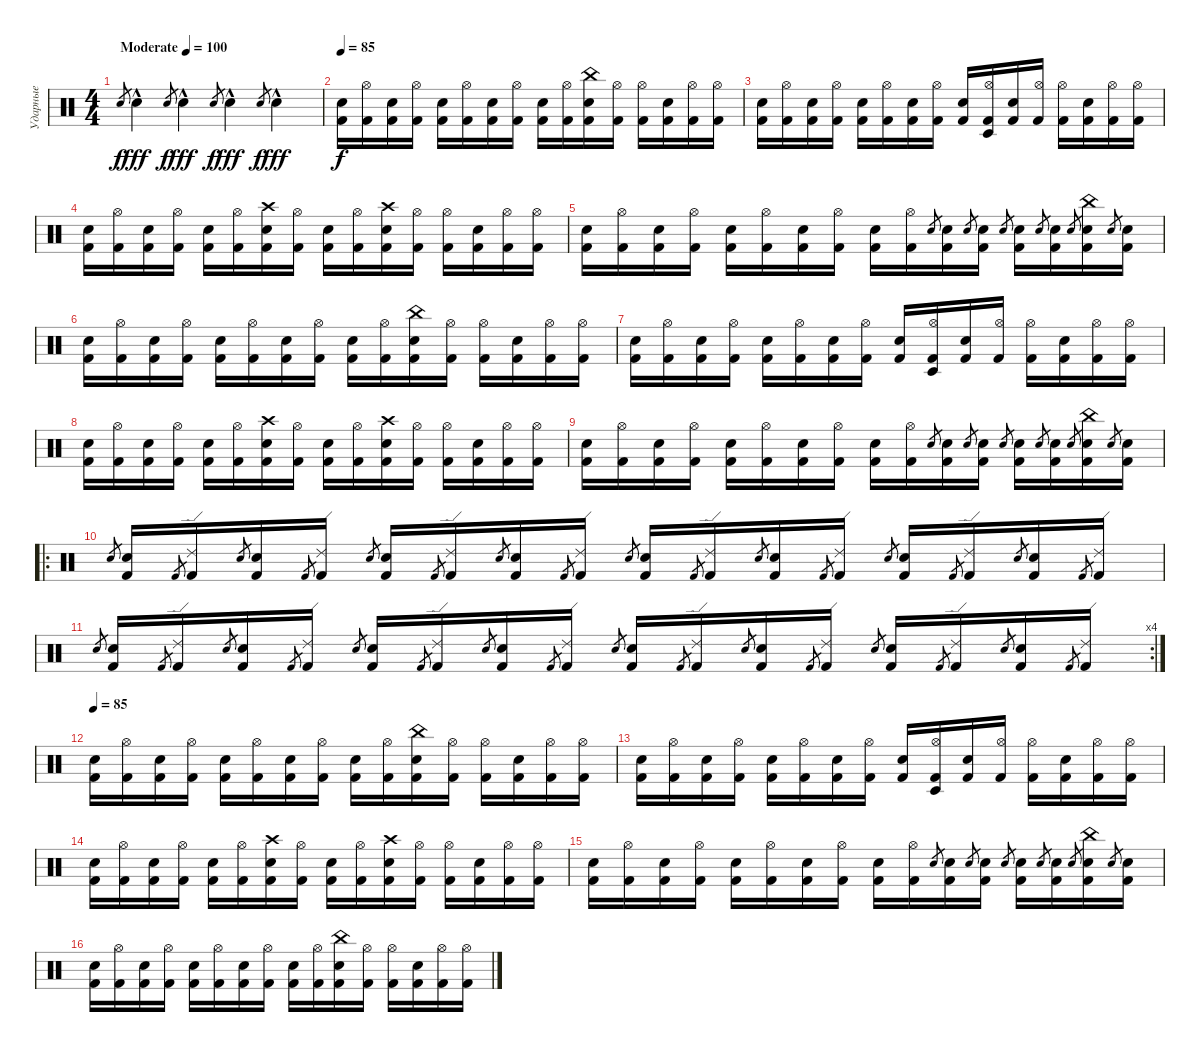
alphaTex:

\track ("Ударные" "Ударные") {instrument percussion}
\staff {score}
\articulation defaults
\ts (4 4)
\tempo (100 "Moderate")
\clef neutral
\ks c "Electric Snare (hit)".8{gr dy f} "Electric Snare (hit)"{hac}.4{dy fff} "Electric Snare (hit)".8{gr dy f} "Electric Snare (hit)"{hac}.4{dy fff} "Electric Snare (hit)".8{gr dy f} "Electric Snare (hit)"{hac}.4{dy fff} "Electric Snare (hit)".8{gr dy f} "Electric Snare (hit)"{hac}.4{dy fff}
|
\tempo 85
("Electric Snare (hit)" "Kick (hit) 2").16{dy f} ("Hi-Hat (open)" "Kick (hit) 2").16 ("Electric Snare (hit)" "Kick (hit) 2").16 ("Hi-Hat (open)" "Kick (hit) 2").16 ("Electric Snare (hit)" "Kick (hit) 2").16 ("Hi-Hat (open)" "Kick (hit) 2").16 ("Electric Snare (hit)" "Kick (hit) 2").16 ("Hi-Hat (open)" "Kick (hit) 2").16 ("Electric Snare (hit)" "Kick (hit) 2").16 ("Hi-Hat (open)" "Kick (hit) 2").16 ("China (hit)" "Electric Snare (hit)" "Kick (hit) 2").16 ("Hi-Hat (open)" "Kick (hit) 2").16 ("Hi-Hat (open)" "Kick (hit) 2").16 ("Electric Snare (hit)" "Kick (hit) 2").16 ("Hi-Hat (open)" "Kick (hit) 2").16 ("Hi-Hat (open)" "Kick (hit) 2").16 |
("Electric Snare (hit)" "Kick (hit) 2").16 ("Hi-Hat (open)" "Kick (hit) 2").16 ("Electric Snare (hit)" "Kick (hit) 2").16 ("Hi-Hat (open)" "Kick (hit) 2").16 ("Electric Snare (hit)" "Kick (hit) 2").16 ("Hi-Hat (open)" "Kick (hit) 2").16 ("Electric Snare (hit)" "Kick (hit) 2").16 ("Hi-Hat (open)" "Kick (hit) 2").16 ("Electric Snare (hit)" "Kick (hit) 2").16 ("Hi-Hat (open)" "Timbale low (hit)" "Kick (hit) 2").16 ("Electric Snare (hit)" "Kick (hit) 2").16 ("Hi-Hat (open)" "Kick (hit) 2").16 ("Hi-Hat (open)" "Kick (hit) 2").16 ("Electric Snare (hit)" "Kick (hit) 2").16 ("Hi-Hat (open)" "Kick (hit) 2").16 ("Hi-Hat (open)" "Kick (hit) 2").16 |
("Electric Snare (hit)" "Kick (hit) 2").16 ("Hi-Hat (open)" "Kick (hit) 2").16 ("Electric Snare (hit)" "Kick (hit) 2").16 ("Hi-Hat (open)" "Kick (hit) 2").16 ("Electric Snare (hit)" "Kick (hit) 2").16 ("Hi-Hat (open)" "Kick (hit) 2").16 ("Crash high (hit)" "Electric Snare (hit)" "Kick (hit) 2").16 ("Hi-Hat (open)" "Kick (hit) 2").16 ("Electric Snare (hit)" "Kick (hit) 2").16 ("Hi-Hat (open)" "Kick (hit) 2").16 ("Crash high (hit)" "Electric Snare (hit)" "Kick (hit) 2").16 ("Hi-Hat (open)" "Kick (hit) 2").16 ("Hi-Hat (open)" "Kick (hit) 2").16 ("Electric Snare (hit)" "Kick (hit) 2").16 ("Hi-Hat (open)" "Kick (hit) 2").16 ("Hi-Hat (open)" "Kick (hit) 2").16 |
("Electric Snare (hit)" "Kick (hit) 2").16 ("Hi-Hat (open)" "Kick (hit) 2").16 ("Electric Snare (hit)" "Kick (hit) 2").16 ("Hi-Hat (open)" "Kick (hit) 2").16 ("Electric Snare (hit)" "Kick (hit) 2").16 ("Hi-Hat (open)" "Kick (hit) 2").16 ("Electric Snare (hit)" "Kick (hit) 2").16 ("Hi-Hat (open)" "Kick (hit) 2").16 ("Electric Snare (hit)" "Kick (hit) 2").16 ("Hi-Hat (open)" "Kick (hit) 2").16 "Electric Snare (hit)".8{gr} ("Electric Snare (hit)" "Kick (hit) 2").16 "Electric Snare (hit)".8{gr} ("Electric Snare (hit)" "Kick (hit) 2").16 "Electric Snare (hit)".8{gr} ("Electric Snare (hit)" "Kick (hit) 2").16 "Electric Snare (hit)".8{gr} ("Electric Snare (hit)" "Kick (hit) 2").16 "Electric Snare (hit)".8{gr} ("China (hit)" "Electric Snare (hit)" "Kick (hit) 2").16 "Electric Snare (hit)".8{gr} ("Electric Snare (hit)" "Kick (hit) 2").16 |
("Electric Snare (hit)" "Kick (hit) 2").16 ("Hi-Hat (open)" "Kick (hit) 2").16 ("Electric Snare (hit)" "Kick (hit) 2").16 ("Hi-Hat (open)" "Kick (hit) 2").16 ("Electric Snare (hit)" "Kick (hit) 2").16 ("Hi-Hat (open)" "Kick (hit) 2").16 ("Electric Snare (hit)" "Kick (hit) 2").16 ("Hi-Hat (open)" "Kick (hit) 2").16 ("Electric Snare (hit)" "Kick (hit) 2").16 ("Hi-Hat (open)" "Kick (hit) 2").16 ("China (hit)" "Electric Snare (hit)" "Kick (hit) 2").16 ("Hi-Hat (open)" "Kick (hit) 2").16 ("Hi-Hat (open)" "Kick (hit) 2").16 ("Electric Snare (hit)" "Kick (hit) 2").16 ("Hi-Hat (open)" "Kick (hit) 2").16 ("Hi-Hat (open)" "Kick (hit) 2").16 |
("Electric Snare (hit)" "Kick (hit) 2").16 ("Hi-Hat (open)" "Kick (hit) 2").16 ("Electric Snare (hit)" "Kick (hit) 2").16 ("Hi-Hat (open)" "Kick (hit) 2").16 ("Electric Snare (hit)" "Kick (hit) 2").16 ("Hi-Hat (open)" "Kick (hit) 2").16 ("Electric Snare (hit)" "Kick (hit) 2").16 ("Hi-Hat (open)" "Kick (hit) 2").16 ("Electric Snare (hit)" "Kick (hit) 2").16 ("Hi-Hat (open)" "Timbale low (hit)" "Kick (hit) 2").16 ("Electric Snare (hit)" "Kick (hit) 2").16 ("Hi-Hat (open)" "Kick (hit) 2").16 ("Hi-Hat (open)" "Kick (hit) 2").16 ("Electric Snare (hit)" "Kick (hit) 2").16 ("Hi-Hat (open)" "Kick (hit) 2").16 ("Hi-Hat (open)" "Kick (hit) 2").16 |
("Electric Snare (hit)" "Kick (hit) 2").16 ("Hi-Hat (open)" "Kick (hit) 2").16 ("Electric Snare (hit)" "Kick (hit) 2").16 ("Hi-Hat (open)" "Kick (hit) 2").16 ("Electric Snare (hit)" "Kick (hit) 2").16 ("Hi-Hat (open)" "Kick (hit) 2").16 ("Crash high (hit)" "Electric Snare (hit)" "Kick (hit) 2").16 ("Hi-Hat (open)" "Kick (hit) 2").16 ("Electric Snare (hit)" "Kick (hit) 2").16 ("Hi-Hat (open)" "Kick (hit) 2").16 ("Crash high (hit)" "Electric Snare (hit)" "Kick (hit) 2").16 ("Hi-Hat (open)" "Kick (hit) 2").16 ("Hi-Hat (open)" "Kick (hit) 2").16 ("Electric Snare (hit)" "Kick (hit) 2").16 ("Hi-Hat (open)" "Kick (hit) 2").16 ("Hi-Hat (open)" "Kick (hit) 2").16 |
("Electric Snare (hit)" "Kick (hit) 2").16 ("Hi-Hat (open)" "Kick (hit) 2").16 ("Electric Snare (hit)" "Kick (hit) 2").16 ("Hi-Hat (open)" "Kick (hit) 2").16 ("Electric Snare (hit)" "Kick (hit) 2").16 ("Hi-Hat (open)" "Kick (hit) 2").16 ("Electric Snare (hit)" "Kick (hit) 2").16 ("Hi-Hat (open)" "Kick (hit) 2").16 ("Electric Snare (hit)" "Kick (hit) 2").16 ("Hi-Hat (open)" "Kick (hit) 2").16 "Electric Snare (hit)".8{gr} ("Electric Snare (hit)" "Kick (hit) 2").16 "Electric Snare (hit)".8{gr} ("Electric Snare (hit)" "Kick (hit) 2").16 "Electric Snare (hit)".8{gr} ("Electric Snare (hit)" "Kick (hit) 2").16 "Electric Snare (hit)".8{gr} ("Electric Snare (hit)" "Kick (hit) 2").16 "Electric Snare (hit)".8{gr} ("China (hit)" "Electric Snare (hit)" "Kick (hit) 2").16 "Electric Snare (hit)".8{gr} ("Electric Snare (hit)" "Kick (hit) 2").16 |
\ro "Electric Snare (hit)".8{gr}
("Electric Snare (hit)" "Kick (hit) 2").16 "Kick (hit) 2".8{gr} ("Ride (edge) 2" "Kick (hit) 2").16 "Electric Snare (hit)".8{gr} ("Electric Snare (hit)" "Kick (hit) 2").16 "Kick (hit) 2".8{gr} ("Ride (edge) 2" "Kick (hit) 2").16 "Electric Snare (hit)".8{gr} ("Electric Snare (hit)" "Kick (hit) 2").16 "Kick (hit) 2".8{gr} ("Ride (edge) 2" "Kick (hit) 2").16 "Electric Snare (hit)".8{gr} ("Electric Snare (hit)" "Kick (hit) 2").16 "Kick (hit) 2".8{gr} ("Ride (edge) 2" "Kick (hit) 2").16 "Electric Snare (hit)".8{gr} ("Electric Snare (hit)" "Kick (hit) 2").16 "Kick (hit) 2".8{gr} ("Ride (edge) 2" "Kick (hit) 2").16 "Electric Snare (hit)".8{gr} ("Electric Snare (hit)" "Kick (hit) 2").16 "Kick (hit) 2".8{gr} ("Ride (edge) 2" "Kick (hit) 2").16 "Electric Snare (hit)".8{gr} ("Electric Snare (hit)" "Kick (hit) 2").16 "Kick (hit) 2".8{gr} ("Ride (edge) 2" "Kick (hit) 2").16 "Electric Snare (hit)".8{gr} ("Electric Snare (hit)" "Kick (hit) 2").16 "Kick (hit) 2".8{gr} ("Ride (edge) 2" "Kick (hit) 2").16 |
\rc 4 "Electric Snare (hit)".8{gr}
("Electric Snare (hit)" "Kick (hit) 2").16 "Kick (hit) 2".8{gr} ("Ride (edge) 2" "Kick (hit) 2").16 "Electric Snare (hit)".8{gr} ("Electric Snare (hit)" "Kick (hit) 2").16 "Kick (hit) 2".8{gr} ("Ride (edge) 2" "Kick (hit) 2").16 "Electric Snare (hit)".8{gr} ("Electric Snare (hit)" "Kick (hit) 2").16 "Kick (hit) 2".8{gr} ("Ride (edge) 2" "Kick (hit) 2").16 "Electric Snare (hit)".8{gr} ("Electric Snare (hit)" "Kick (hit) 2").16 "Kick (hit) 2".8{gr} ("Ride (edge) 2" "Kick (hit) 2").16 "Electric Snare (hit)".8{gr} ("Electric Snare (hit)" "Kick (hit) 2").16 "Kick (hit) 2".8{gr} ("Ride (edge) 2" "Kick (hit) 2").16 "Electric Snare (hit)".8{gr} ("Electric Snare (hit)" "Kick (hit) 2").16 "Kick (hit) 2".8{gr} ("Ride (edge) 2" "Kick (hit) 2").16 "Electric Snare (hit)".8{gr} ("Electric Snare (hit)" "Kick (hit) 2").16 "Kick (hit) 2".8{gr} ("Ride (edge) 2" "Kick (hit) 2").16 "Electric Snare (hit)".8{gr} ("Electric Snare (hit)" "Kick (hit) 2").16 "Kick (hit) 2".8{gr} ("Ride (edge) 2" "Kick (hit) 2").16 |
\tempo 85
("Electric Snare (hit)" "Kick (hit) 2").16 ("Hi-Hat (open)" "Kick (hit) 2").16 ("Electric Snare (hit)" "Kick (hit) 2").16 ("Hi-Hat (open)" "Kick (hit) 2").16 ("Electric Snare (hit)" "Kick (hit) 2").16 ("Hi-Hat (open)" "Kick (hit) 2").16 ("Electric Snare (hit)" "Kick (hit) 2").16 ("Hi-Hat (open)" "Kick (hit) 2").16 ("Electric Snare (hit)" "Kick (hit) 2").16 ("Hi-Hat (open)" "Kick (hit) 2").16 ("China (hit)" "Electric Snare (hit)" "Kick (hit) 2").16 ("Hi-Hat (open)" "Kick (hit) 2").16 ("Hi-Hat (open)" "Kick (hit) 2").16 ("Electric Snare (hit)" "Kick (hit) 2").16 ("Hi-Hat (open)" "Kick (hit) 2").16 ("Hi-Hat (open)" "Kick (hit) 2").16 |
("Electric Snare (hit)" "Kick (hit) 2").16 ("Hi-Hat (open)" "Kick (hit) 2").16 ("Electric Snare (hit)" "Kick (hit) 2").16 ("Hi-Hat (open)" "Kick (hit) 2").16 ("Electric Snare (hit)" "Kick (hit) 2").16 ("Hi-Hat (open)" "Kick (hit) 2").16 ("Electric Snare (hit)" "Kick (hit) 2").16 ("Hi-Hat (open)" "Kick (hit) 2").16 ("Electric Snare (hit)" "Kick (hit) 2").16 ("Hi-Hat (open)" "Timbale low (hit)" "Kick (hit) 2").16 ("Electric Snare (hit)" "Kick (hit) 2").16 ("Hi-Hat (open)" "Kick (hit) 2").16 ("Hi-Hat (open)" "Kick (hit) 2").16 ("Electric Snare (hit)" "Kick (hit) 2").16 ("Hi-Hat (open)" "Kick (hit) 2").16 ("Hi-Hat (open)" "Kick (hit) 2").16 |
("Electric Snare (hit)" "Kick (hit) 2").16 ("Hi-Hat (open)" "Kick (hit) 2").16 ("Electric Snare (hit)" "Kick (hit) 2").16 ("Hi-Hat (open)" "Kick (hit) 2").16 ("Electric Snare (hit)" "Kick (hit) 2").16 ("Hi-Hat (open)" "Kick (hit) 2").16 ("Crash high (hit)" "Electric Snare (hit)" "Kick (hit) 2").16 ("Hi-Hat (open)" "Kick (hit) 2").16 ("Electric Snare (hit)" "Kick (hit) 2").16 ("Hi-Hat (open)" "Kick (hit) 2").16 ("Crash high (hit)" "Electric Snare (hit)" "Kick (hit) 2").16 ("Hi-Hat (open)" "Kick (hit) 2").16 ("Hi-Hat (open)" "Kick (hit) 2").16 ("Electric Snare (hit)" "Kick (hit) 2").16 ("Hi-Hat (open)" "Kick (hit) 2").16 ("Hi-Hat (open)" "Kick (hit) 2").16 |
("Electric Snare (hit)" "Kick (hit) 2").16 ("Hi-Hat (open)" "Kick (hit) 2").16 ("Electric Snare (hit)" "Kick (hit) 2").16 ("Hi-Hat (open)" "Kick (hit) 2").16 ("Electric Snare (hit)" "Kick (hit) 2").16 ("Hi-Hat (open)" "Kick (hit) 2").16 ("Electric Snare (hit)" "Kick (hit) 2").16 ("Hi-Hat (open)" "Kick (hit) 2").16 ("Electric Snare (hit)" "Kick (hit) 2").16 ("Hi-Hat (open)" "Kick (hit) 2").16 "Electric Snare (hit)".8{gr} ("Electric Snare (hit)" "Kick (hit) 2").16 "Electric Snare (hit)".8{gr} ("Electric Snare (hit)" "Kick (hit) 2").16 "Electric Snare (hit)".8{gr} ("Electric Snare (hit)" "Kick (hit) 2").16 "Electric Snare (hit)".8{gr} ("Electric Snare (hit)" "Kick (hit) 2").16 "Electric Snare (hit)".8{gr} ("China (hit)" "Electric Snare (hit)" "Kick (hit) 2").16 "Electric Snare (hit)".8{gr} ("Electric Snare (hit)" "Kick (hit) 2").16 |
("Electric Snare (hit)" "Kick (hit) 2").16 ("Hi-Hat (open)" "Kick (hit) 2").16 ("Electric Snare (hit)" "Kick (hit) 2").16 ("Hi-Hat (open)" "Kick (hit) 2").16 ("Electric Snare (hit)" "Kick (hit) 2").16 ("Hi-Hat (open)" "Kick (hit) 2").16 ("Electric Snare (hit)" "Kick (hit) 2").16 ("Hi-Hat (open)" "Kick (hit) 2").16 ("Electric Snare (hit)" "Kick (hit) 2").16 ("Hi-Hat (open)" "Kick (hit) 2").16 ("China (hit)" "Electric Snare (hit)" "Kick (hit) 2").16 ("Hi-Hat (open)" "Kick (hit) 2").16 ("Hi-Hat (open)" "Kick (hit) 2").16 ("Electric Snare (hit)" "Kick (hit) 2").16 ("Hi-Hat (open)" "Kick (hit) 2").16 ("Hi-Hat (open)" "Kick (hit) 2").16
